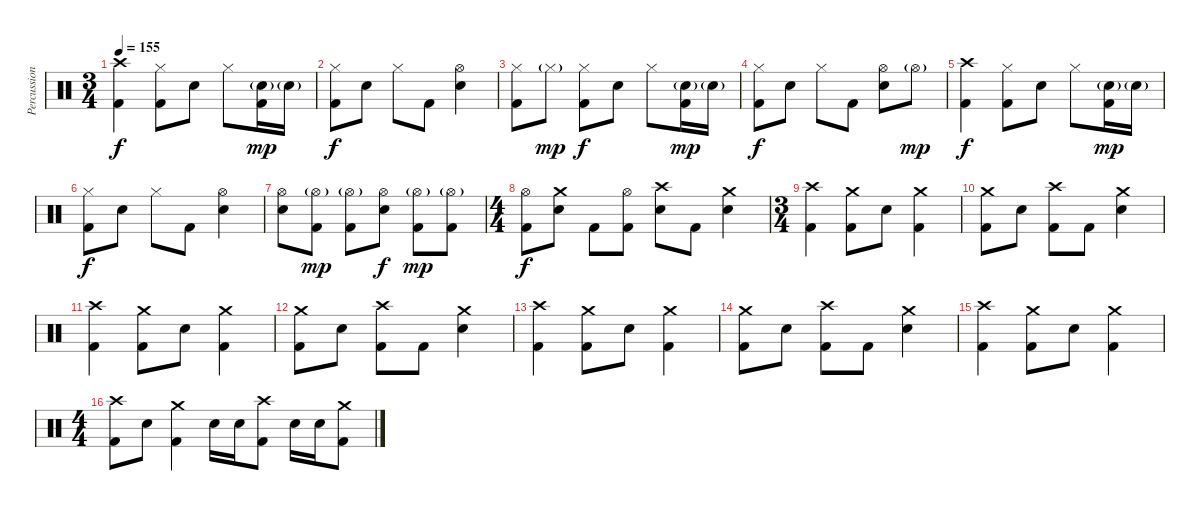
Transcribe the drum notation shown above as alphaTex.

\track ("Percussion" "Percussion") {instrument percussion}
\staff {score}
\articulation defaults
\ts (3 4)
\tempo 155
\clef neutral
\ks c
("Crash high (hit)" "Kick (hit) 2").4{dy f} ("Hi-Hat (closed)" "Kick (hit) 2").8 "Electric Snare (hit)".8 "Hi-Hat (closed)".8 ("Electric Snare (hit)"{g} "Kick (hit) 2").16{dy mp} "Electric Snare (hit)"{g}.16 |
("Hi-Hat (closed)" "Kick (hit) 2").8{dy f} "Electric Snare (hit)".8 "Hi-Hat (closed)".8 "Kick (hit) 2".8 ("Hi-Hat (open)" "Electric Snare (hit)").4 |
("Hi-Hat (closed)" "Kick (hit) 2").8 "Hi-Hat (closed)"{g}.8{dy mp} ("Hi-Hat (closed)" "Kick (hit) 2").8{dy f} "Electric Snare (hit)".8 "Hi-Hat (closed)".8 ("Electric Snare (hit)"{g} "Kick (hit) 2").16{dy mp} "Electric Snare (hit)"{g}.16 |
("Hi-Hat (closed)" "Kick (hit) 2").8{dy f} "Electric Snare (hit)".8 "Hi-Hat (closed)".8 "Kick (hit) 2".8 ("Hi-Hat (open)" "Electric Snare (hit)").8 "Hi-Hat (open)"{g}.8{dy mp} |
("Crash high (hit)" "Kick (hit) 2").4{dy f} ("Hi-Hat (closed)" "Kick (hit) 2").8 "Electric Snare (hit)".8 "Hi-Hat (closed)".8 ("Electric Snare (hit)"{g} "Kick (hit) 2").16{dy mp} "Electric Snare (hit)"{g}.16 |
("Hi-Hat (closed)" "Kick (hit) 2").8{dy f} "Electric Snare (hit)".8 "Hi-Hat (closed)".8 "Kick (hit) 2".8 ("Hi-Hat (open)" "Electric Snare (hit)").4 |
("Hi-Hat (open)" "Electric Snare (hit)").8 ("Hi-Hat (open)"{g} "Kick (hit) 2").8{dy mp} ("Hi-Hat (open)"{g} "Kick (hit) 2").8 ("Hi-Hat (open)" "Electric Snare (hit)").8{dy f} ("Hi-Hat (open)"{g} "Kick (hit) 2").8{dy mp} ("Hi-Hat (open)"{g} "Kick (hit) 2").8 |
\ts (4 4)
("Hi-Hat (open)" "Kick (hit) 2").8{dy f} ("Crash medium (hit)" "Electric Snare (hit)").8 "Kick (hit) 2".8 ("Hi-Hat (open)" "Kick (hit) 2").8 ("Crash high (hit)" "Electric Snare (hit)").8 "Kick (hit) 2".8 ("Crash medium (hit)" "Electric Snare (hit)").4 |
\ts (3 4)
("Crash high (hit)" "Kick (hit) 2").4 ("Crash medium (hit)" "Kick (hit) 2").8 "Electric Snare (hit)".8 ("Crash medium (hit)" "Kick (hit) 2").4 |
("Crash medium (hit)" "Kick (hit) 2").8 "Electric Snare (hit)".8 ("Crash high (hit)" "Kick (hit) 2").8 "Kick (hit) 2".8 ("Crash medium (hit)" "Electric Snare (hit)").4 |
("Crash high (hit)" "Kick (hit) 2").4 ("Crash medium (hit)" "Kick (hit) 2").8 "Electric Snare (hit)".8 ("Crash medium (hit)" "Kick (hit) 2").4 |
("Crash medium (hit)" "Kick (hit) 2").8 "Electric Snare (hit)".8 ("Crash high (hit)" "Kick (hit) 2").8 "Kick (hit) 2".8 ("Crash medium (hit)" "Electric Snare (hit)").4 |
("Crash high (hit)" "Kick (hit) 2").4 ("Crash medium (hit)" "Kick (hit) 2").8 "Electric Snare (hit)".8 ("Crash medium (hit)" "Kick (hit) 2").4 |
("Crash medium (hit)" "Kick (hit) 2").8 "Electric Snare (hit)".8 ("Crash high (hit)" "Kick (hit) 2").8 "Kick (hit) 2".8 ("Crash medium (hit)" "Electric Snare (hit)").4 |
("Crash high (hit)" "Kick (hit) 2").4 ("Crash medium (hit)" "Kick (hit) 2").8 "Electric Snare (hit)".8 ("Crash medium (hit)" "Kick (hit) 2").4 |
\ts (4 4)
("Crash high (hit)" "Kick (hit) 2").8 "Electric Snare (hit)".8 ("Crash medium (hit)" "Kick (hit) 2").4 "Electric Snare (hit)".16 "Electric Snare (hit)".16 ("Crash high (hit)" "Kick (hit) 2").8 "Electric Snare (hit)".16 "Electric Snare (hit)".16 ("Crash medium (hit)" "Kick (hit) 2").8
